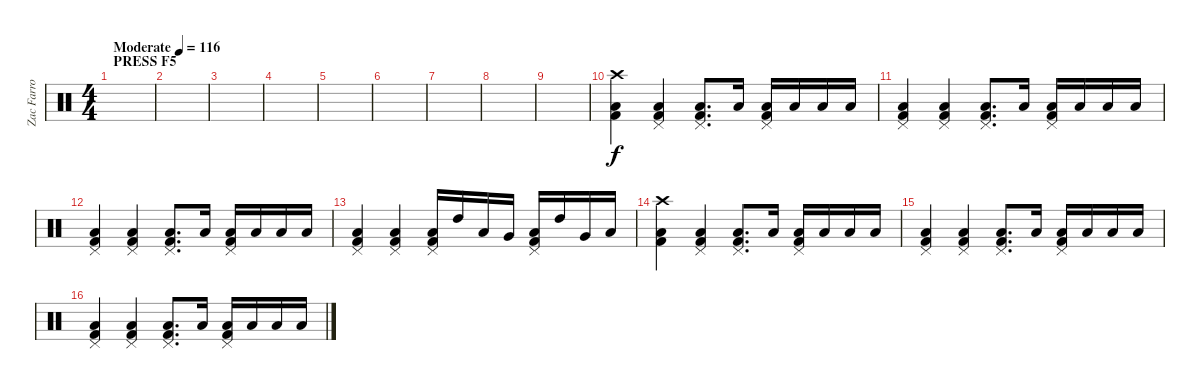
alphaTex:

\track ("Zac Farro" "Zac Farro") {instrument percussion}
\staff {score}
\articulation defaults
\ts (4 4)
\section ("" "PRESS F5")
\tempo (116 "Moderate")
\clef neutral
\ks c
|
|
|
|
|
|
|
|
|
("Crash high (hit)" "Kick (hit) 2" "Low Floor Tom (hit)").4 ("Pedal Hi-Hat (hit)" "Kick (hit) 2" "Low Floor Tom (hit)").4 ("Pedal Hi-Hat (hit)" "Kick (hit) 2" "Low Floor Tom (hit)").8{d} "Low Floor Tom (hit)".16 ("Pedal Hi-Hat (hit)" "Kick (hit) 2" "Low Floor Tom (hit)").16 "Low Floor Tom (hit)".16 "Low Floor Tom (hit)".16 "Low Floor Tom (hit)".16 |
("Pedal Hi-Hat (hit)" "Kick (hit) 2" "Low Floor Tom (hit)").4 ("Pedal Hi-Hat (hit)" "Kick (hit) 2" "Low Floor Tom (hit)").4 ("Pedal Hi-Hat (hit)" "Kick (hit) 2" "Low Floor Tom (hit)").8{d} "Low Floor Tom (hit)".16 ("Pedal Hi-Hat (hit)" "Kick (hit) 2" "Low Floor Tom (hit)").16 "Low Floor Tom (hit)".16 "Low Floor Tom (hit)".16 "Low Floor Tom (hit)".16 |
("Pedal Hi-Hat (hit)" "Kick (hit) 2" "Low Floor Tom (hit)").4 ("Pedal Hi-Hat (hit)" "Kick (hit) 2" "Low Floor Tom (hit)").4 ("Pedal Hi-Hat (hit)" "Kick (hit) 2" "Low Floor Tom (hit)").8{d} "Low Floor Tom (hit)".16 ("Pedal Hi-Hat (hit)" "Kick (hit) 2" "Low Floor Tom (hit)").16 "Low Floor Tom (hit)".16 "Low Floor Tom (hit)".16 "Low Floor Tom (hit)".16 |
("Pedal Hi-Hat (hit)" "Kick (hit) 2" "Low Floor Tom (hit)").4 ("Pedal Hi-Hat (hit)" "Kick (hit) 2" "Low Floor Tom (hit)").4 ("Pedal Hi-Hat (hit)" "Kick (hit) 2" "Low Floor Tom (hit)").16 "High Tom (hit)".16 "Low Tom (hit)".16 "Very Low Tom (hit)".16 ("Pedal Hi-Hat (hit)" "Kick (hit) 2" "Low Floor Tom (hit)").16 "High Tom (hit)".16 "Very Low Tom (hit)".16 "Low Tom (hit)".16 |
("Crash high (hit)" "Kick (hit) 2" "Low Floor Tom (hit)").4 ("Pedal Hi-Hat (hit)" "Kick (hit) 2" "Low Floor Tom (hit)").4 ("Pedal Hi-Hat (hit)" "Kick (hit) 2" "Low Floor Tom (hit)").8{d} "Low Floor Tom (hit)".16 ("Pedal Hi-Hat (hit)" "Kick (hit) 2" "Low Floor Tom (hit)").16 "Low Floor Tom (hit)".16 "Low Floor Tom (hit)".16 "Low Floor Tom (hit)".16 |
("Pedal Hi-Hat (hit)" "Kick (hit) 2" "Low Floor Tom (hit)").4 ("Pedal Hi-Hat (hit)" "Kick (hit) 2" "Low Floor Tom (hit)").4 ("Pedal Hi-Hat (hit)" "Kick (hit) 2" "Low Floor Tom (hit)").8{d} "Low Floor Tom (hit)".16 ("Pedal Hi-Hat (hit)" "Kick (hit) 2" "Low Floor Tom (hit)").16 "Low Floor Tom (hit)".16 "Low Floor Tom (hit)".16 "Low Floor Tom (hit)".16 |
("Pedal Hi-Hat (hit)" "Kick (hit) 2" "Low Floor Tom (hit)").4 ("Pedal Hi-Hat (hit)" "Kick (hit) 2" "Low Floor Tom (hit)").4 ("Pedal Hi-Hat (hit)" "Kick (hit) 2" "Low Floor Tom (hit)").8{d} "Low Floor Tom (hit)".16 ("Pedal Hi-Hat (hit)" "Kick (hit) 2" "Low Floor Tom (hit)").16 "Low Floor Tom (hit)".16 "Low Floor Tom (hit)".16 "Low Floor Tom (hit)".16
